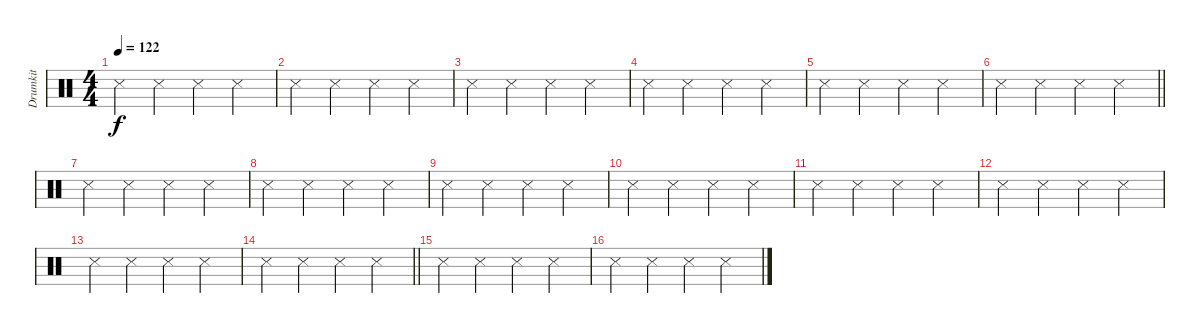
\track ("Drumkit" "Drumkit") {mute instrument percussion}
\staff {score}
\articulation defaults
\ts (4 4)
\tempo 122
\clef neutral
\ks c "Snare (side stick) 3".4{dy f} "Snare (side stick) 3".4 "Snare (side stick) 3".4 "Snare (side stick) 3".4
|
"Snare (side stick) 3".4 "Snare (side stick) 3".4 "Snare (side stick) 3".4 "Snare (side stick) 3".4 |
"Snare (side stick) 3".4 "Snare (side stick) 3".4 "Snare (side stick) 3".4 "Snare (side stick) 3".4 |
"Snare (side stick) 3".4 "Snare (side stick) 3".4 "Snare (side stick) 3".4 "Snare (side stick) 3".4 |
"Snare (side stick) 3".4 "Snare (side stick) 3".4 "Snare (side stick) 3".4 "Snare (side stick) 3".4 |
\barLineRight lightlight "Snare (side stick) 3".4 "Snare (side stick) 3".4 "Snare (side stick) 3".4 "Snare (side stick) 3".4
|
"Snare (side stick) 3".4 "Snare (side stick) 3".4 "Snare (side stick) 3".4 "Snare (side stick) 3".4 |
"Snare (side stick) 3".4 "Snare (side stick) 3".4 "Snare (side stick) 3".4 "Snare (side stick) 3".4 |
"Snare (side stick) 3".4 "Snare (side stick) 3".4 "Snare (side stick) 3".4 "Snare (side stick) 3".4 |
"Snare (side stick) 3".4 "Snare (side stick) 3".4 "Snare (side stick) 3".4 "Snare (side stick) 3".4 |
"Snare (side stick) 3".4 "Snare (side stick) 3".4 "Snare (side stick) 3".4 "Snare (side stick) 3".4 |
"Snare (side stick) 3".4 "Snare (side stick) 3".4 "Snare (side stick) 3".4 "Snare (side stick) 3".4 |
"Snare (side stick) 3".4 "Snare (side stick) 3".4 "Snare (side stick) 3".4 "Snare (side stick) 3".4 |
\barLineRight lightlight "Snare (side stick) 3".4 "Snare (side stick) 3".4 "Snare (side stick) 3".4 "Snare (side stick) 3".4
|
"Snare (side stick) 3".4 "Snare (side stick) 3".4 "Snare (side stick) 3".4 "Snare (side stick) 3".4 |
"Snare (side stick) 3".4 "Snare (side stick) 3".4 "Snare (side stick) 3".4 "Snare (side stick) 3".4
